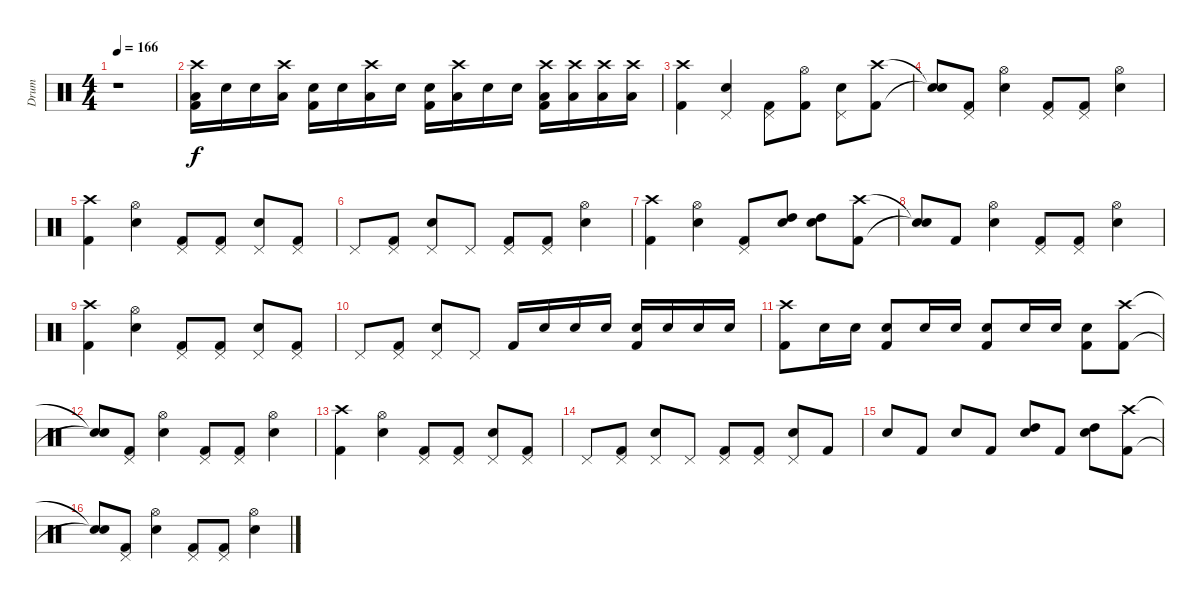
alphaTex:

\track ("Drum" "Drum") {instrument percussion}
\staff {score}
\articulation defaults
\ts (4 4)
\tempo 166
\clef neutral
\ks c
r.1{dy f} |
("Crash high (hit)" "Low Tom (hit)" "Kick (hit) 2").16 "Electric Snare (hit)".16 "Electric Snare (hit)".16 ("Crash high (hit)" "Low Tom (hit)").16 ("Electric Snare (hit)" "Kick (hit) 2").16 "Electric Snare (hit)".16 ("Crash high (hit)" "Low Tom (hit)").16 "Electric Snare (hit)".16 ("Electric Snare (hit)" "Kick (hit) 2").16 ("Crash high (hit)" "Low Tom (hit)").16 "Electric Snare (hit)".16 "Electric Snare (hit)".16 ("Crash high (hit)" "Low Tom (hit)" "Kick (hit) 2").16 ("Crash high (hit)" "Low Tom (hit)").16 ("Crash high (hit)" "Low Tom (hit)").16 ("Crash high (hit)" "Low Tom (hit)").16 |
("Crash high (hit)" "Kick (hit) 2").4 ("Pedal Hi-Hat (hit)" "Electric Snare (hit)").4 ("Pedal Hi-Hat (hit)" "Kick (hit) 2").8 ("Hi-Hat (open)" "Kick (hit) 2").8 ("Pedal Hi-Hat (hit)" "Electric Snare (hit)").8 ("Crash high (hit)" "Kick (hit) 2").8 |
("Snare (hit)"{t} "Snare (hit)"{t}).8 ("Pedal Hi-Hat (hit)" "Kick (hit) 2").8 ("Hi-Hat (open)" "Electric Snare (hit)").4 ("Pedal Hi-Hat (hit)" "Kick (hit) 2").8 ("Pedal Hi-Hat (hit)" "Kick (hit) 2").8 ("Hi-Hat (open)" "Electric Snare (hit)").4 |
("Crash high (hit)" "Kick (hit) 2").4 ("Hi-Hat (open)" "Electric Snare (hit)").4 ("Pedal Hi-Hat (hit)" "Kick (hit) 2").8 ("Pedal Hi-Hat (hit)" "Kick (hit) 2").8 ("Pedal Hi-Hat (hit)" "Electric Snare (hit)").8 ("Pedal Hi-Hat (hit)" "Kick (hit) 2").8 |
"Pedal Hi-Hat (hit)".8 ("Pedal Hi-Hat (hit)" "Kick (hit) 2").8 ("Pedal Hi-Hat (hit)" "Electric Snare (hit)").8 "Pedal Hi-Hat (hit)".8 ("Pedal Hi-Hat (hit)" "Kick (hit) 2").8 ("Pedal Hi-Hat (hit)" "Kick (hit) 2").8 ("Hi-Hat (open)" "Electric Snare (hit)").4 |
("Crash high (hit)" "Kick (hit) 2").4 ("Hi-Hat (open)" "Electric Snare (hit)").4 ("Pedal Hi-Hat (hit)" "Kick (hit) 2").8 ("High Tom (hit)" "Electric Snare (hit)").8 ("High Tom (hit)" "Electric Snare (hit)").8 ("Crash high (hit)" "Kick (hit) 2").8 |
("Snare (hit)"{t} "Snare (hit)"{t}).8 "Kick (hit) 2".8 ("Hi-Hat (open)" "Electric Snare (hit)").4 ("Pedal Hi-Hat (hit)" "Kick (hit) 2").8 ("Pedal Hi-Hat (hit)" "Kick (hit) 2").8 ("Hi-Hat (open)" "Electric Snare (hit)").4 |
("Crash high (hit)" "Kick (hit) 2").4 ("Hi-Hat (open)" "Electric Snare (hit)").4 ("Pedal Hi-Hat (hit)" "Kick (hit) 2").8 ("Pedal Hi-Hat (hit)" "Kick (hit) 2").8 ("Pedal Hi-Hat (hit)" "Electric Snare (hit)").8 ("Pedal Hi-Hat (hit)" "Kick (hit) 2").8 |
"Pedal Hi-Hat (hit)".8 ("Pedal Hi-Hat (hit)" "Kick (hit) 2").8 ("Pedal Hi-Hat (hit)" "Electric Snare (hit)").8 "Pedal Hi-Hat (hit)".8 "Kick (hit) 2".16 "Electric Snare (hit)".16 "Electric Snare (hit)".16 "Electric Snare (hit)".16 ("Electric Snare (hit)" "Kick (hit) 2").16 "Electric Snare (hit)".16 "Electric Snare (hit)".16 "Electric Snare (hit)".16 |
("Crash high (hit)" "Kick (hit) 2").8 "Electric Snare (hit)".16 "Electric Snare (hit)".16 ("Electric Snare (hit)" "Kick (hit) 2").8 "Electric Snare (hit)".16 "Electric Snare (hit)".16 ("Electric Snare (hit)" "Kick (hit) 2").8 "Electric Snare (hit)".16 "Electric Snare (hit)".16 ("Electric Snare (hit)" "Kick (hit) 2").8 ("Crash high (hit)" "Kick (hit) 2").8 |
("Snare (hit)"{t} "Snare (hit)"{t}).8 ("Pedal Hi-Hat (hit)" "Kick (hit) 2").8 ("Hi-Hat (open)" "Electric Snare (hit)").4 ("Pedal Hi-Hat (hit)" "Kick (hit) 2").8 ("Pedal Hi-Hat (hit)" "Kick (hit) 2").8 ("Hi-Hat (open)" "Electric Snare (hit)").4 |
("Crash high (hit)" "Kick (hit) 2").4 ("Hi-Hat (open)" "Electric Snare (hit)").4 ("Pedal Hi-Hat (hit)" "Kick (hit) 2").8 ("Pedal Hi-Hat (hit)" "Kick (hit) 2").8 ("Pedal Hi-Hat (hit)" "Electric Snare (hit)").8 ("Pedal Hi-Hat (hit)" "Kick (hit) 2").8 |
"Pedal Hi-Hat (hit)".8 ("Pedal Hi-Hat (hit)" "Kick (hit) 2").8 ("Pedal Hi-Hat (hit)" "Electric Snare (hit)").8 "Pedal Hi-Hat (hit)".8 ("Pedal Hi-Hat (hit)" "Kick (hit) 2").8 ("Pedal Hi-Hat (hit)" "Kick (hit) 2").8 ("Pedal Hi-Hat (hit)" "Electric Snare (hit)").8 "Kick (hit) 2".8 |
"Electric Snare (hit)".8 "Kick (hit) 2".8 "Electric Snare (hit)".8 "Kick (hit) 2".8 ("High Tom (hit)" "Electric Snare (hit)").8 "Kick (hit) 2".8 ("High Tom (hit)" "Electric Snare (hit)").8 ("Crash high (hit)" "Kick (hit) 2").8 |
("Snare (hit)"{t} "Snare (hit)"{t}).8 ("Pedal Hi-Hat (hit)" "Kick (hit) 2").8 ("Hi-Hat (open)" "Electric Snare (hit)").4 ("Pedal Hi-Hat (hit)" "Kick (hit) 2").8 ("Pedal Hi-Hat (hit)" "Kick (hit) 2").8 ("Hi-Hat (open)" "Electric Snare (hit)").4
